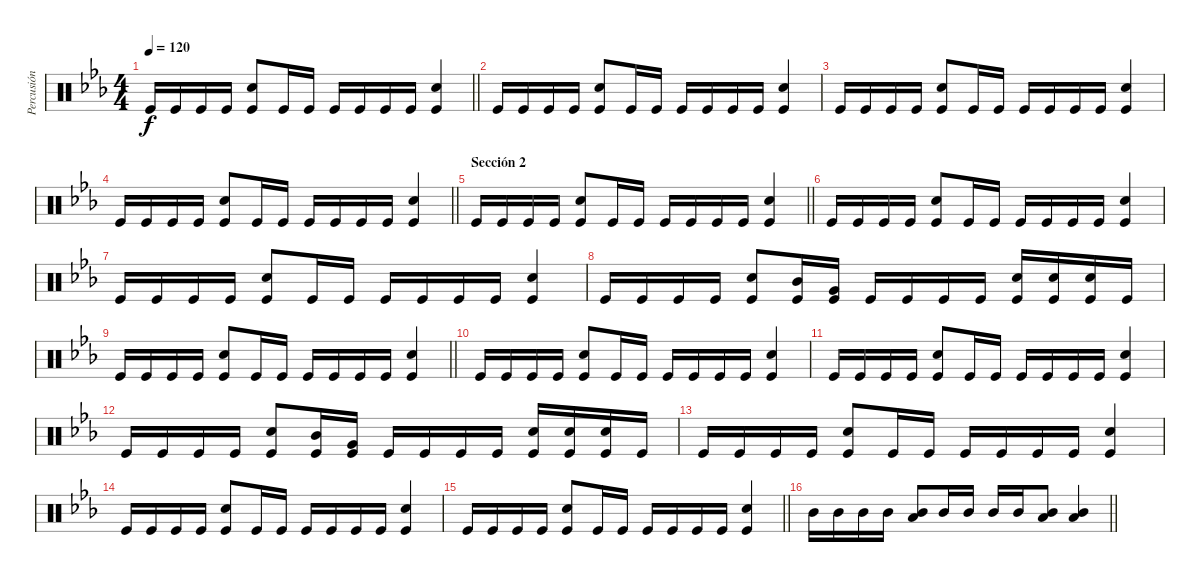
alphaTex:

\track ("Percusión" "Percusión") {instrument percussion}
\staff {score}
\articulation defaults
\ts (4 4)
\tempo 120
\clef neutral
\barLineRight lightlight
\ks eb "Kick (hit)".16{dy f} "Kick (hit)".16 "Kick (hit)".16 "Kick (hit)".16
("Snare (hit) 2" "Kick (hit)").8 "Kick (hit)".16 "Kick (hit)".16 "Kick (hit)".16 "Kick (hit)".16 "Kick (hit)".16 "Kick (hit)".16 ("Snare (hit) 2" "Kick (hit)").4 |
"Kick (hit)".16 "Kick (hit)".16 "Kick (hit)".16 "Kick (hit)".16 ("Snare (hit) 2" "Kick (hit)").8 "Kick (hit)".16 "Kick (hit)".16 "Kick (hit)".16 "Kick (hit)".16 "Kick (hit)".16 "Kick (hit)".16 ("Snare (hit) 2" "Kick (hit)").4 |
"Kick (hit)".16 "Kick (hit)".16 "Kick (hit)".16 "Kick (hit)".16 ("Snare (hit) 2" "Kick (hit)").8 "Kick (hit)".16 "Kick (hit)".16 "Kick (hit)".16 "Kick (hit)".16 "Kick (hit)".16 "Kick (hit)".16 ("Snare (hit) 2" "Kick (hit)").4 |
\barLineRight lightlight "Kick (hit)".16 "Kick (hit)".16 "Kick (hit)".16 "Kick (hit)".16
("Snare (hit) 2" "Kick (hit)").8 "Kick (hit)".16 "Kick (hit)".16 "Kick (hit)".16 "Kick (hit)".16 "Kick (hit)".16 "Kick (hit)".16 ("Snare (hit) 2" "Kick (hit)").4 |
\section ("" "Sección 2")
\barLineRight lightlight "Kick (hit)".16 "Kick (hit)".16 "Kick (hit)".16 "Kick (hit)".16
("Snare (hit) 2" "Kick (hit)").8 "Kick (hit)".16 "Kick (hit)".16 "Kick (hit)".16 "Kick (hit)".16 "Kick (hit)".16 "Kick (hit)".16 ("Snare (hit) 2" "Kick (hit)").4 |
"Kick (hit)".16 "Kick (hit)".16 "Kick (hit)".16 "Kick (hit)".16 ("Snare (hit) 2" "Kick (hit)").8 "Kick (hit)".16 "Kick (hit)".16 "Kick (hit)".16 "Kick (hit)".16 "Kick (hit)".16 "Kick (hit)".16 ("Snare (hit) 2" "Kick (hit)").4 |
"Kick (hit)".16 "Kick (hit)".16 "Kick (hit)".16 "Kick (hit)".16 ("Snare (hit) 2" "Kick (hit)").8 "Kick (hit)".16 "Kick (hit)".16 "Kick (hit)".16 "Kick (hit)".16 "Kick (hit)".16 "Kick (hit)".16 ("Snare (hit) 2" "Kick (hit)").4 |
"Kick (hit)".16 "Kick (hit)".16 "Kick (hit)".16 "Kick (hit)".16 ("Snare (hit) 2" "Kick (hit)").8 ("Mid Tom (hit)" "Kick (hit)").16 ("Very Low Tom (hit)" "Kick (hit)").16 "Kick (hit)".16 "Kick (hit)".16 "Kick (hit)".16 "Kick (hit)".16 ("Snare (hit) 2" "Kick (hit)").16 ("Snare (hit) 2" "Kick (hit)").16 ("Snare (hit) 2" "Kick (hit)").16 "Kick (hit)".16 |
\barLineRight lightlight "Kick (hit)".16 "Kick (hit)".16 "Kick (hit)".16 "Kick (hit)".16
("Snare (hit) 2" "Kick (hit)").8 "Kick (hit)".16 "Kick (hit)".16 "Kick (hit)".16 "Kick (hit)".16 "Kick (hit)".16 "Kick (hit)".16 ("Snare (hit) 2" "Kick (hit)").4 |
"Kick (hit)".16 "Kick (hit)".16 "Kick (hit)".16 "Kick (hit)".16 ("Snare (hit) 2" "Kick (hit)").8 "Kick (hit)".16 "Kick (hit)".16 "Kick (hit)".16 "Kick (hit)".16 "Kick (hit)".16 "Kick (hit)".16 ("Snare (hit) 2" "Kick (hit)").4 |
"Kick (hit)".16 "Kick (hit)".16 "Kick (hit)".16 "Kick (hit)".16 ("Snare (hit) 2" "Kick (hit)").8 "Kick (hit)".16 "Kick (hit)".16 "Kick (hit)".16 "Kick (hit)".16 "Kick (hit)".16 "Kick (hit)".16 ("Snare (hit) 2" "Kick (hit)").4 |
"Kick (hit)".16 "Kick (hit)".16 "Kick (hit)".16 "Kick (hit)".16 ("Snare (hit) 2" "Kick (hit)").8 ("Mid Tom (hit)" "Kick (hit)").16 ("Very Low Tom (hit)" "Kick (hit)").16 "Kick (hit)".16 "Kick (hit)".16 "Kick (hit)".16 "Kick (hit)".16 ("Snare (hit) 2" "Kick (hit)").16 ("Snare (hit) 2" "Kick (hit)").16 ("Snare (hit) 2" "Kick (hit)").16 "Kick (hit)".16 |
"Kick (hit)".16 "Kick (hit)".16 "Kick (hit)".16 "Kick (hit)".16 ("Snare (hit) 2" "Kick (hit)").8 "Kick (hit)".16 "Kick (hit)".16 "Kick (hit)".16 "Kick (hit)".16 "Kick (hit)".16 "Kick (hit)".16 ("Snare (hit) 2" "Kick (hit)").4 |
"Kick (hit)".16 "Kick (hit)".16 "Kick (hit)".16 "Kick (hit)".16 ("Snare (hit) 2" "Kick (hit)").8 "Kick (hit)".16 "Kick (hit)".16 "Kick (hit)".16 "Kick (hit)".16 "Kick (hit)".16 "Kick (hit)".16 ("Snare (hit) 2" "Kick (hit)").4 |
\barLineRight lightlight "Kick (hit)".16 "Kick (hit)".16 "Kick (hit)".16 "Kick (hit)".16
("Snare (hit) 2" "Kick (hit)").8 "Kick (hit)".16 "Kick (hit)".16 "Kick (hit)".16 "Kick (hit)".16 "Kick (hit)".16 "Kick (hit)".16 ("Snare (hit) 2" "Kick (hit)").4 |
\barLineRight lightlight "Mid Tom (hit)".16 "Mid Tom (hit)".16 "Mid Tom (hit)".16 "Mid Tom (hit)".16
("Low Tom (hit)" "Mid Tom (hit)").8 "Mid Tom (hit)".16 "Mid Tom (hit)".16 "Mid Tom (hit)".16 "Mid Tom (hit)".16 ("Low Tom (hit)" "Mid Tom (hit)").8 ("Low Tom (hit)" "Mid Tom (hit)").4
